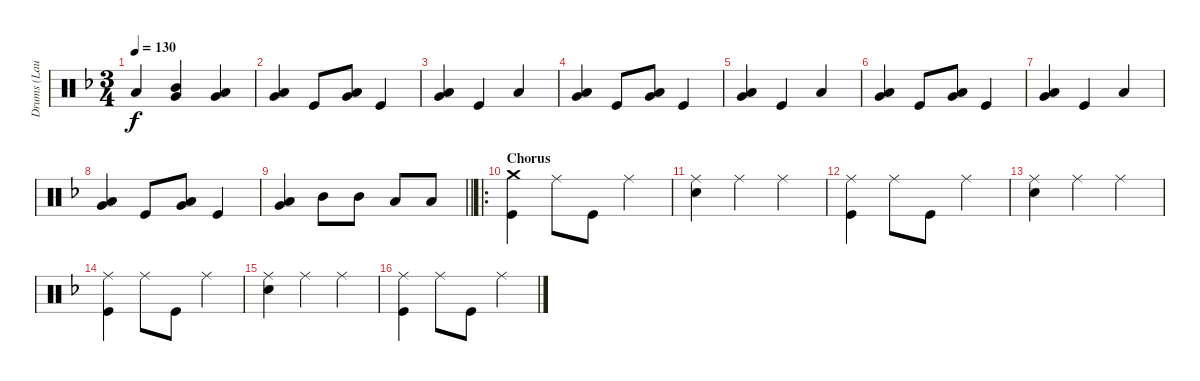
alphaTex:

\track ("Drums (Laura)" "Drums (Lau") {instrument percussion}
\staff {score}
\articulation defaults
\ts (3 4)
\tempo 130
\clef neutral
\ks dminor "Low Floor Tom (hit)".4{dy f}
("Mid Tom (hit)" "Very Low Tom (hit)").4 ("Low Tom (hit)" "Very Low Tom (hit)").4 |
("Very Low Tom (hit)" "Low Floor Tom (hit)").4 "Kick (hit)".8 ("Very Low Tom (hit)" "Low Floor Tom (hit)").8 "Kick (hit)".4 |
("Very Low Tom (hit)" "Low Floor Tom (hit)").4 "Kick (hit)".4 "Low Floor Tom (hit)".4 |
("Very Low Tom (hit)" "Low Floor Tom (hit)").4 "Kick (hit)".8 ("Very Low Tom (hit)" "Low Floor Tom (hit)").8 "Kick (hit)".4 |
("Very Low Tom (hit)" "Low Floor Tom (hit)").4 "Kick (hit)".4 "Low Floor Tom (hit)".4 |
("Very Low Tom (hit)" "Low Floor Tom (hit)").4 "Kick (hit)".8 ("Very Low Tom (hit)" "Low Floor Tom (hit)").8 "Kick (hit)".4 |
("Very Low Tom (hit)" "Low Floor Tom (hit)").4 "Kick (hit)".4 "Low Floor Tom (hit)".4 |
("Very Low Tom (hit)" "Low Floor Tom (hit)").4 "Kick (hit)".8 ("Very Low Tom (hit)" "Low Floor Tom (hit)").8 "Kick (hit)".4 |
\barLineRight lightlight
("Very Low Tom (hit)" "Low Floor Tom (hit)").4 "Mid Tom (hit)".8 "Mid Tom (hit)".8 "Low Tom (hit)".8 "Low Tom (hit)".8 |
\ro
\section ("" "Chorus")
("Crash medium (hit)" "Kick (hit)").4 "Ride (middle)".8 "Kick (hit)".8 "Ride (middle)".4 |
("Ride (middle)" "Snare (hit) 2").4 "Ride (middle)".4 "Ride (middle)".4 |
("Ride (middle)" "Kick (hit)").4 "Ride (middle)".8 "Kick (hit)".8 "Ride (middle)".4 |
("Ride (middle)" "Snare (hit) 2").4 "Ride (middle)".4 "Ride (middle)".4 |
("Ride (middle)" "Kick (hit)").4 "Ride (middle)".8 "Kick (hit)".8 "Ride (middle)".4 |
("Ride (middle)" "Snare (hit) 2").4 "Ride (middle)".4 "Ride (middle)".4 |
("Ride (middle)" "Kick (hit)").4 "Ride (middle)".8 "Kick (hit)".8 "Ride (middle)".4
